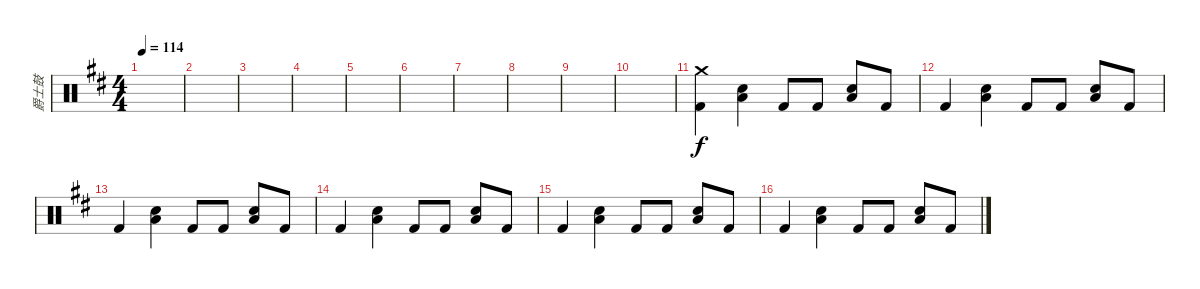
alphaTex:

\track ("爵士鼓" "爵士鼓") {instrument percussion}
\staff {score}
\articulation defaults
\ts (4 4)
\tempo 114
\clef neutral
\ks d
|
|
|
|
|
|
|
|
|
|
("Kick (hit) 2" "Crash medium (hit)").4 ("Low Tom (hit)" "Snare (hit) 2").4 "Kick (hit) 2".8 "Kick (hit) 2".8 ("Low Tom (hit)" "Snare (hit) 2").8 "Kick (hit) 2".8 |
"Kick (hit) 2".4 ("Low Tom (hit)" "Snare (hit) 2").4 "Kick (hit) 2".8 "Kick (hit) 2".8 ("Low Tom (hit)" "Snare (hit) 2").8 "Kick (hit) 2".8 |
"Kick (hit) 2".4 ("Low Tom (hit)" "Snare (hit) 2").4 "Kick (hit) 2".8 "Kick (hit) 2".8 ("Low Tom (hit)" "Snare (hit) 2").8 "Kick (hit) 2".8 |
"Kick (hit) 2".4 ("Low Tom (hit)" "Snare (hit) 2").4 "Kick (hit) 2".8 "Kick (hit) 2".8 ("Low Tom (hit)" "Snare (hit) 2").8 "Kick (hit) 2".8 |
"Kick (hit) 2".4 ("Low Tom (hit)" "Snare (hit) 2").4 "Kick (hit) 2".8 "Kick (hit) 2".8 ("Low Tom (hit)" "Snare (hit) 2").8 "Kick (hit) 2".8 |
"Kick (hit) 2".4 ("Low Tom (hit)" "Snare (hit) 2").4 "Kick (hit) 2".8 "Kick (hit) 2".8 ("Low Tom (hit)" "Snare (hit) 2").8 "Kick (hit) 2".8
